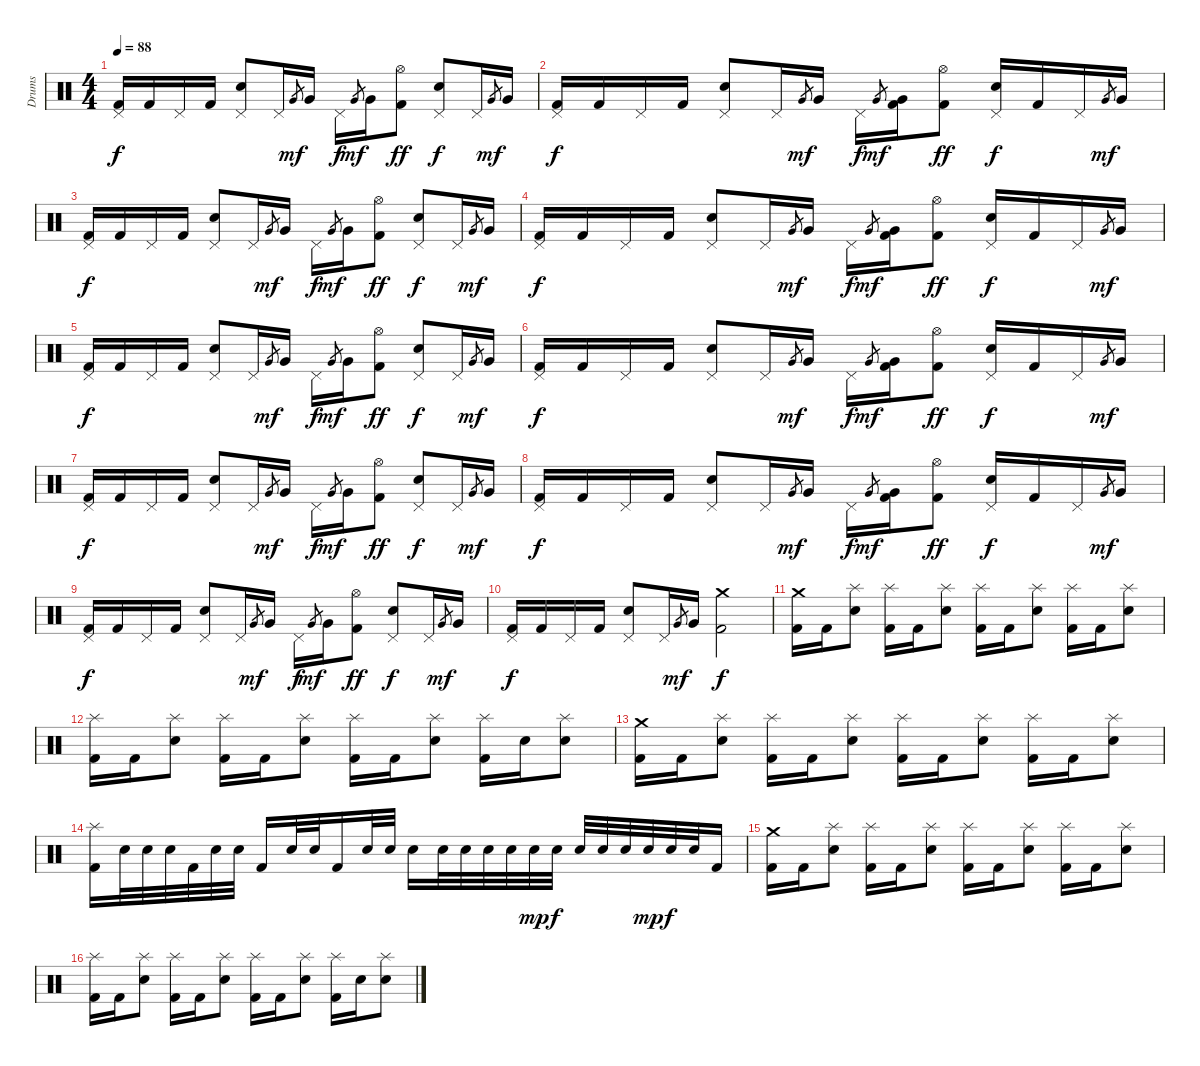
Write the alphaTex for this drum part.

\track ("Drums" "Drums") {instrument percussion}
\staff {score}
\articulation defaults
\ts (4 4)
\tempo 88
\clef neutral
\ks c
("Pedal Hi-Hat (hit)" "Kick (hit) 2").16{dy f} "Kick (hit) 2".16 "Pedal Hi-Hat (hit)".16 "Kick (hit) 2".16 ("Pedal Hi-Hat (hit)" "Electric Snare (hit)").8 "Pedal Hi-Hat (hit)".16 "Very Low Tom (hit)"{sl}.8{gr dy mf} "Very Low Tom (hit)".16 "Pedal Hi-Hat (hit)".16{dy f} "Very Low Tom (hit)"{sl}.8{gr dy mf} "Very Low Tom (hit)".16 ("Hi-Hat (open)" "Kick (hit) 2").8{dy ff} ("Pedal Hi-Hat (hit)" "Electric Snare (hit)").8{dy f} "Pedal Hi-Hat (hit)".16 "Very Low Tom (hit)"{sl}.8{gr dy mf} "Very Low Tom (hit)".16 |
("Pedal Hi-Hat (hit)" "Kick (hit) 2").16{dy f} "Kick (hit) 2".16 "Pedal Hi-Hat (hit)".16 "Kick (hit) 2".16 ("Pedal Hi-Hat (hit)" "Electric Snare (hit)").8 "Pedal Hi-Hat (hit)".16 "Very Low Tom (hit)"{sl}.8{gr dy mf} "Very Low Tom (hit)".16 "Pedal Hi-Hat (hit)".16{dy f} "Very Low Tom (hit)"{sl}.8{gr dy mf} ("Very Low Tom (hit)" "Kick (hit) 2").16 ("Hi-Hat (open)" "Kick (hit) 2").8{dy ff} ("Pedal Hi-Hat (hit)" "Electric Snare (hit)").16{dy f} "Kick (hit) 2".16 "Pedal Hi-Hat (hit)".16 "Very Low Tom (hit)"{sl}.8{gr dy mf} "Very Low Tom (hit)".16 |
("Pedal Hi-Hat (hit)" "Kick (hit) 2").16{dy f} "Kick (hit) 2".16 "Pedal Hi-Hat (hit)".16 "Kick (hit) 2".16 ("Pedal Hi-Hat (hit)" "Electric Snare (hit)").8 "Pedal Hi-Hat (hit)".16 "Very Low Tom (hit)"{sl}.8{gr dy mf} "Very Low Tom (hit)".16 "Pedal Hi-Hat (hit)".16{dy f} "Very Low Tom (hit)"{sl}.8{gr dy mf} "Very Low Tom (hit)".16 ("Hi-Hat (open)" "Kick (hit) 2").8{dy ff} ("Pedal Hi-Hat (hit)" "Electric Snare (hit)").8{dy f} "Pedal Hi-Hat (hit)".16 "Very Low Tom (hit)"{sl}.8{gr dy mf} "Very Low Tom (hit)".16 |
("Pedal Hi-Hat (hit)" "Kick (hit) 2").16{dy f} "Kick (hit) 2".16 "Pedal Hi-Hat (hit)".16 "Kick (hit) 2".16 ("Pedal Hi-Hat (hit)" "Electric Snare (hit)").8 "Pedal Hi-Hat (hit)".16 "Very Low Tom (hit)"{sl}.8{gr dy mf} "Very Low Tom (hit)".16 "Pedal Hi-Hat (hit)".16{dy f} "Very Low Tom (hit)"{sl}.8{gr dy mf} ("Very Low Tom (hit)" "Kick (hit) 2").16 ("Hi-Hat (open)" "Kick (hit) 2").8{dy ff} ("Pedal Hi-Hat (hit)" "Electric Snare (hit)").16{dy f} "Kick (hit) 2".16 "Pedal Hi-Hat (hit)".16 "Very Low Tom (hit)"{sl}.8{gr dy mf} "Very Low Tom (hit)".16 |
("Pedal Hi-Hat (hit)" "Kick (hit) 2").16{dy f} "Kick (hit) 2".16 "Pedal Hi-Hat (hit)".16 "Kick (hit) 2".16 ("Pedal Hi-Hat (hit)" "Electric Snare (hit)").8 "Pedal Hi-Hat (hit)".16 "Very Low Tom (hit)"{sl}.8{gr dy mf} "Very Low Tom (hit)".16 "Pedal Hi-Hat (hit)".16{dy f} "Very Low Tom (hit)"{sl}.8{gr dy mf} "Very Low Tom (hit)".16 ("Hi-Hat (open)" "Kick (hit) 2").8{dy ff} ("Pedal Hi-Hat (hit)" "Electric Snare (hit)").8{dy f} "Pedal Hi-Hat (hit)".16 "Very Low Tom (hit)"{sl}.8{gr dy mf} "Very Low Tom (hit)".16 |
("Pedal Hi-Hat (hit)" "Kick (hit) 2").16{dy f} "Kick (hit) 2".16 "Pedal Hi-Hat (hit)".16 "Kick (hit) 2".16 ("Pedal Hi-Hat (hit)" "Electric Snare (hit)").8 "Pedal Hi-Hat (hit)".16 "Very Low Tom (hit)"{sl}.8{gr dy mf} "Very Low Tom (hit)".16 "Pedal Hi-Hat (hit)".16{dy f} "Very Low Tom (hit)"{sl}.8{gr dy mf} ("Very Low Tom (hit)" "Kick (hit) 2").16 ("Hi-Hat (open)" "Kick (hit) 2").8{dy ff} ("Pedal Hi-Hat (hit)" "Electric Snare (hit)").16{dy f} "Kick (hit) 2".16 "Pedal Hi-Hat (hit)".16 "Very Low Tom (hit)"{sl}.8{gr dy mf} "Very Low Tom (hit)".16 |
("Pedal Hi-Hat (hit)" "Kick (hit) 2").16{dy f} "Kick (hit) 2".16 "Pedal Hi-Hat (hit)".16 "Kick (hit) 2".16 ("Pedal Hi-Hat (hit)" "Electric Snare (hit)").8 "Pedal Hi-Hat (hit)".16 "Very Low Tom (hit)"{sl}.8{gr dy mf} "Very Low Tom (hit)".16 "Pedal Hi-Hat (hit)".16{dy f} "Very Low Tom (hit)"{sl}.8{gr dy mf} "Very Low Tom (hit)".16 ("Hi-Hat (open)" "Kick (hit) 2").8{dy ff} ("Pedal Hi-Hat (hit)" "Electric Snare (hit)").8{dy f} "Pedal Hi-Hat (hit)".16 "Very Low Tom (hit)"{sl}.8{gr dy mf} "Very Low Tom (hit)".16 |
("Pedal Hi-Hat (hit)" "Kick (hit) 2").16{dy f} "Kick (hit) 2".16 "Pedal Hi-Hat (hit)".16 "Kick (hit) 2".16 ("Pedal Hi-Hat (hit)" "Electric Snare (hit)").8 "Pedal Hi-Hat (hit)".16 "Very Low Tom (hit)"{sl}.8{gr dy mf} "Very Low Tom (hit)".16 "Pedal Hi-Hat (hit)".16{dy f} "Very Low Tom (hit)"{sl}.8{gr dy mf} ("Very Low Tom (hit)" "Kick (hit) 2").16 ("Hi-Hat (open)" "Kick (hit) 2").8{dy ff} ("Pedal Hi-Hat (hit)" "Electric Snare (hit)").16{dy f} "Kick (hit) 2".16 "Pedal Hi-Hat (hit)".16 "Very Low Tom (hit)"{sl}.8{gr dy mf} "Very Low Tom (hit)".16 |
("Pedal Hi-Hat (hit)" "Kick (hit) 2").16{dy f} "Kick (hit) 2".16 "Pedal Hi-Hat (hit)".16 "Kick (hit) 2".16 ("Pedal Hi-Hat (hit)" "Electric Snare (hit)").8 "Pedal Hi-Hat (hit)".16 "Very Low Tom (hit)"{sl}.8{gr dy mf} "Very Low Tom (hit)".16 "Pedal Hi-Hat (hit)".16{dy f} "Very Low Tom (hit)"{sl}.8{gr dy mf} "Very Low Tom (hit)".16 ("Hi-Hat (open)" "Kick (hit) 2").8{dy ff} ("Pedal Hi-Hat (hit)" "Electric Snare (hit)").8{dy f} "Pedal Hi-Hat (hit)".16 "Very Low Tom (hit)"{sl}.8{gr dy mf} "Very Low Tom (hit)".16 |
("Pedal Hi-Hat (hit)" "Kick (hit) 2").16{dy f} "Kick (hit) 2".16 "Pedal Hi-Hat (hit)".16 "Kick (hit) 2".16 ("Pedal Hi-Hat (hit)" "Electric Snare (hit)").8 "Pedal Hi-Hat (hit)".16 "Very Low Tom (hit)"{sl}.8{gr dy mf} "Very Low Tom (hit)".16 ("Crash medium (hit)" "Kick (hit) 2").2{dy f} |
("Crash medium (hit)" "Kick (hit) 2").16 "Kick (hit) 2".16 ("Splash (hit)" "Electric Snare (hit)").8 ("Splash (hit)" "Kick (hit) 2").16 "Kick (hit) 2".16 ("Splash (hit)" "Electric Snare (hit)").8 ("Splash (hit)" "Kick (hit) 2").16 "Kick (hit) 2".16 ("Splash (hit)" "Electric Snare (hit)").8 ("Splash (hit)" "Kick (hit) 2").16 "Kick (hit) 2".16 ("Splash (hit)" "Electric Snare (hit)").8 |
("Splash (hit)" "Kick (hit) 2").16 "Kick (hit) 2".16 ("Splash (hit)" "Electric Snare (hit)").8 ("Splash (hit)" "Kick (hit) 2").16 "Kick (hit) 2".16 ("Splash (hit)" "Electric Snare (hit)").8 ("Splash (hit)" "Kick (hit) 2").16 "Kick (hit) 2".16 ("Splash (hit)" "Electric Snare (hit)").8 ("Splash (hit)" "Kick (hit) 2").16 "Electric Snare (hit)".16 ("Splash (hit)" "Electric Snare (hit)").8 |
("Crash medium (hit)" "Kick (hit) 2").16 "Kick (hit) 2".16 ("Splash (hit)" "Electric Snare (hit)").8 ("Splash (hit)" "Kick (hit) 2").16 "Kick (hit) 2".16 ("Splash (hit)" "Electric Snare (hit)").8 ("Splash (hit)" "Kick (hit) 2").16 "Kick (hit) 2".16 ("Splash (hit)" "Electric Snare (hit)").8 ("Splash (hit)" "Kick (hit) 2").16 "Kick (hit) 2".16 ("Splash (hit)" "Electric Snare (hit)").8 |
("Splash (hit)" "Kick (hit) 2").16 "Electric Snare (hit)".32 "Electric Snare (hit)".32 "Electric Snare (hit)".32 "Kick (hit) 2".32 "Electric Snare (hit)".32 "Electric Snare (hit)".32 "Kick (hit) 2".16 "Electric Snare (hit)".32 "Electric Snare (hit)".32 "Kick (hit) 2".16 "Electric Snare (hit)".32 "Electric Snare (hit)".32 "Electric Snare (hit)".16 "Electric Snare (hit)".32 "Electric Snare (hit)".32 "Electric Snare (hit)".32 "Electric Snare (hit)".32 "Electric Snare (hit)".32{dy mp} "Electric Snare (hit)".32{dy f} "Electric Snare (hit)".32 "Electric Snare (hit)".32 "Electric Snare (hit)".32 "Electric Snare (hit)".32{dy mp} "Electric Snare (hit)".32{dy f} "Electric Snare (hit)".32 "Kick (hit) 2".16 |
("Crash medium (hit)" "Kick (hit) 2").16 "Kick (hit) 2".16 ("Splash (hit)" "Electric Snare (hit)").8 ("Splash (hit)" "Kick (hit) 2").16 "Kick (hit) 2".16 ("Splash (hit)" "Electric Snare (hit)").8 ("Splash (hit)" "Kick (hit) 2").16 "Kick (hit) 2".16 ("Splash (hit)" "Electric Snare (hit)").8 ("Splash (hit)" "Kick (hit) 2").16 "Kick (hit) 2".16 ("Splash (hit)" "Electric Snare (hit)").8 |
("Splash (hit)" "Kick (hit) 2").16 "Kick (hit) 2".16 ("Splash (hit)" "Electric Snare (hit)").8 ("Splash (hit)" "Kick (hit) 2").16 "Kick (hit) 2".16 ("Splash (hit)" "Electric Snare (hit)").8 ("Splash (hit)" "Kick (hit) 2").16 "Kick (hit) 2".16 ("Splash (hit)" "Electric Snare (hit)").8 ("Splash (hit)" "Kick (hit) 2").16 "Electric Snare (hit)".16 ("Splash (hit)" "Electric Snare (hit)").8
